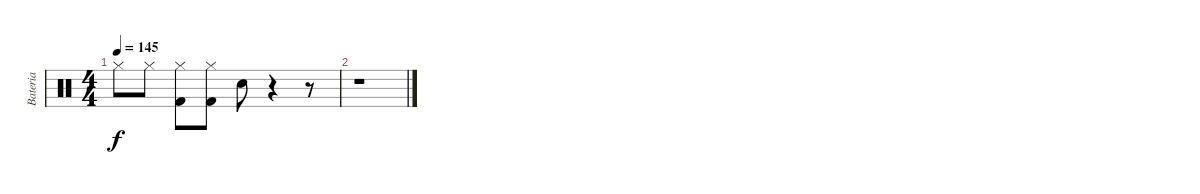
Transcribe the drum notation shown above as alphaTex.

\track ("Bateria" "Bateria") {instrument percussion}
\staff {score}
\articulation defaults
\ts (4 4)
\tempo 145
\clef neutral
\ks c "Hi-Hat (closed)".8{dy f} "Hi-Hat (closed)".8
("Hi-Hat (closed)" "Kick (hit) 2").8 ("Hi-Hat (closed)" "Kick (hit) 2").8 "Snare (hit) 2".8 r.4 r.8 |
r.1
